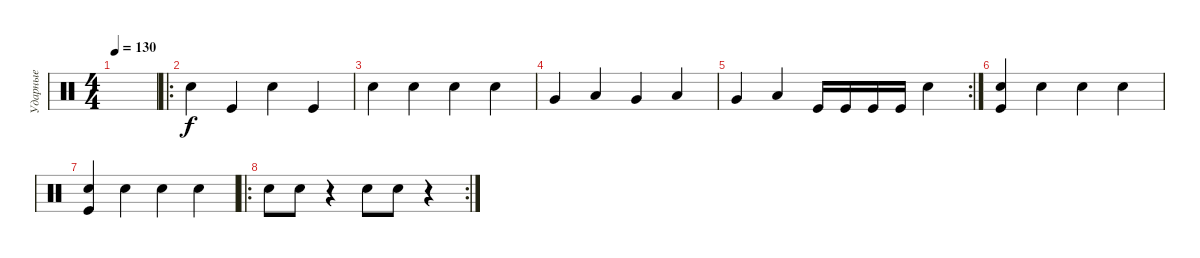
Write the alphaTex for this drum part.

\track ("Ударные" "Ударные") {instrument percussion}
\staff {score}
\articulation defaults
\ts (4 4)
\tempo 130
\clef neutral
\ks c
|
\ro "Snare (hit) 2".4 "Kick (hit)".4 "Snare (hit) 2".4 "Kick (hit)".4
|
"Electric Snare (hit)".4 "Snare (hit) 2".4 "Electric Snare (hit)".4 "Snare (hit) 2".4 |
"Very Low Tom (hit)".4 "Low Tom (hit)".4 "Very Low Tom (hit)".4 "Low Tom (hit)".4 |
\rc 2 "Very Low Tom (hit)".4 "Low Tom (hit)".4 "Kick (hit)".16 "Kick (hit)".16 "Kick (hit)".16 "Kick (hit)".16 "Snare (hit) 2".4
|
("Kick (hit)" "Snare (hit) 2").4 "Snare (hit) 2".4 "Snare (hit) 2".4 "Snare (hit) 2".4 |
("Kick (hit)" "Snare (hit) 2").4 "Snare (hit) 2".4 "Snare (hit) 2".4 "Snare (hit) 2".4 |
\ro
\rc 2 "Electric Snare (hit)".8 "Electric Snare (hit)".8
r.4 "Electric Snare (hit)".8 "Electric Snare (hit)".8 r.4
